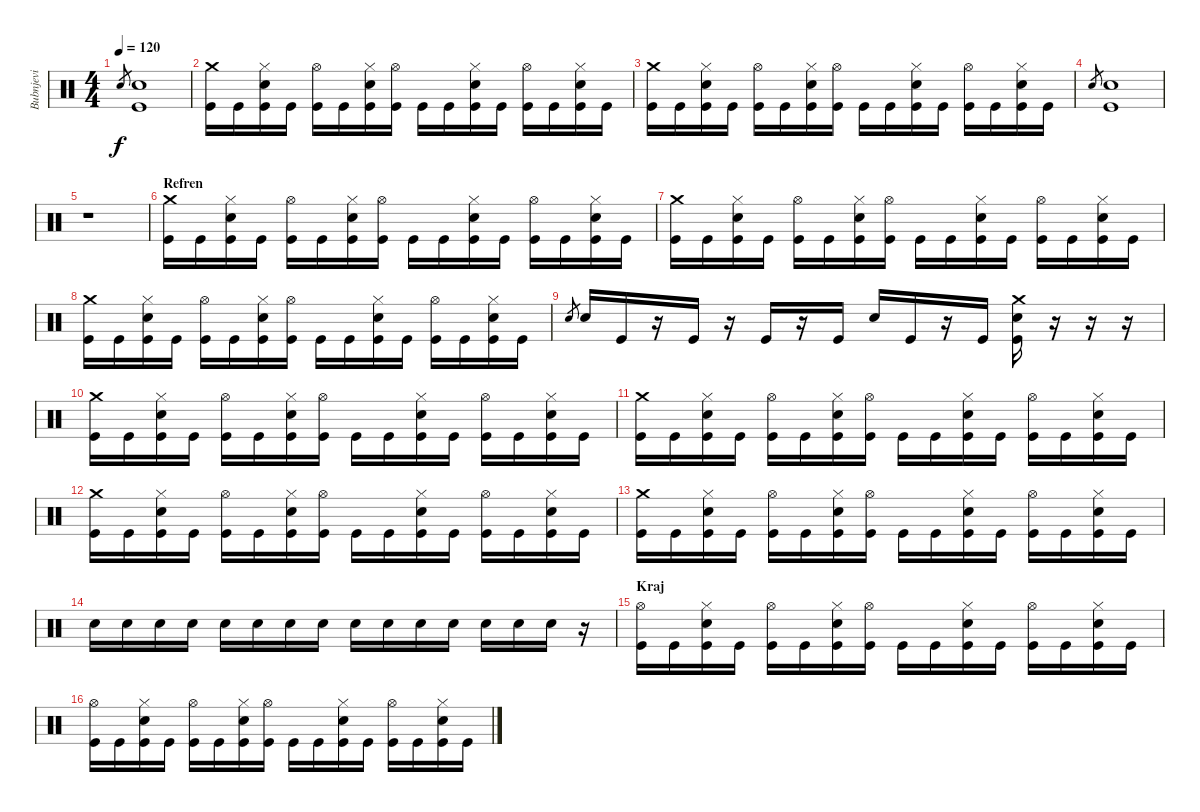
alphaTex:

\track ("Bubnjevi" "Bubnjevi") {instrument percussion}
\staff {score}
\articulation defaults
\ts (4 4)
\tempo 120
\clef neutral
\ks c "Electric Snare (hit)".8{gr dy f}
("Electric Snare (hit)" "Kick (hit)").1 |
("Crash medium (hit)" "Kick (hit)").16 "Kick (hit)".16 ("Electric Snare (hit)" "Hi-Hat (closed)" "Kick (hit)").16 "Kick (hit)".16 ("Hi-Hat (open)" "Kick (hit)").16 "Kick (hit)".16 ("Electric Snare (hit)" "Hi-Hat (closed)" "Kick (hit)").16 ("Hi-Hat (open)" "Kick (hit)").16 "Kick (hit)".16 "Kick (hit)".16 ("Electric Snare (hit)" "Hi-Hat (closed)" "Kick (hit)").16 "Kick (hit)".16 ("Hi-Hat (open)" "Kick (hit)").16 "Kick (hit)".16 ("Electric Snare (hit)" "Hi-Hat (closed)" "Kick (hit)").16 "Kick (hit)".16 |
("Crash medium (hit)" "Kick (hit)").16 "Kick (hit)".16 ("Electric Snare (hit)" "Hi-Hat (closed)" "Kick (hit)").16 "Kick (hit)".16 ("Hi-Hat (open)" "Kick (hit)").16 "Kick (hit)".16 ("Electric Snare (hit)" "Hi-Hat (closed)" "Kick (hit)").16 ("Hi-Hat (open)" "Kick (hit)").16 "Kick (hit)".16 "Kick (hit)".16 ("Electric Snare (hit)" "Hi-Hat (closed)" "Kick (hit)").16 "Kick (hit)".16 ("Hi-Hat (open)" "Kick (hit)").16 "Kick (hit)".16 ("Electric Snare (hit)" "Hi-Hat (closed)" "Kick (hit)").16 "Kick (hit)".16 |
"Electric Snare (hit)".8{gr} ("Electric Snare (hit)" "Kick (hit)").1 |
r.1 |
\section ("" "Refren")
("Crash medium (hit)" "Kick (hit)").16 "Kick (hit)".16 ("Electric Snare (hit)" "Hi-Hat (closed)" "Kick (hit)").16 "Kick (hit)".16 ("Hi-Hat (open)" "Kick (hit)").16 "Kick (hit)".16 ("Electric Snare (hit)" "Hi-Hat (closed)" "Kick (hit)").16 ("Hi-Hat (open)" "Kick (hit)").16 "Kick (hit)".16 "Kick (hit)".16 ("Electric Snare (hit)" "Hi-Hat (closed)" "Kick (hit)").16 "Kick (hit)".16 ("Hi-Hat (open)" "Kick (hit)").16 "Kick (hit)".16 ("Electric Snare (hit)" "Hi-Hat (closed)" "Kick (hit)").16 "Kick (hit)".16 |
("Crash medium (hit)" "Kick (hit)").16 "Kick (hit)".16 ("Electric Snare (hit)" "Hi-Hat (closed)" "Kick (hit)").16 "Kick (hit)".16 ("Hi-Hat (open)" "Kick (hit)").16 "Kick (hit)".16 ("Electric Snare (hit)" "Hi-Hat (closed)" "Kick (hit)").16 ("Hi-Hat (open)" "Kick (hit)").16 "Kick (hit)".16 "Kick (hit)".16 ("Electric Snare (hit)" "Hi-Hat (closed)" "Kick (hit)").16 "Kick (hit)".16 ("Hi-Hat (open)" "Kick (hit)").16 "Kick (hit)".16 ("Electric Snare (hit)" "Hi-Hat (closed)" "Kick (hit)").16 "Kick (hit)".16 |
("Crash medium (hit)" "Kick (hit)").16 "Kick (hit)".16 ("Electric Snare (hit)" "Hi-Hat (closed)" "Kick (hit)").16 "Kick (hit)".16 ("Hi-Hat (open)" "Kick (hit)").16 "Kick (hit)".16 ("Electric Snare (hit)" "Hi-Hat (closed)" "Kick (hit)").16 ("Hi-Hat (open)" "Kick (hit)").16 "Kick (hit)".16 "Kick (hit)".16 ("Electric Snare (hit)" "Hi-Hat (closed)" "Kick (hit)").16 "Kick (hit)".16 ("Hi-Hat (open)" "Kick (hit)").16 "Kick (hit)".16 ("Electric Snare (hit)" "Hi-Hat (closed)" "Kick (hit)").16 "Kick (hit)".16 |
"Electric Snare (hit)".8{gr} "Electric Snare (hit)".16 "Kick (hit)".16 r.16 "Kick (hit)".16 r.16 "Kick (hit)".16 r.16 "Kick (hit)".16 "Electric Snare (hit)".16 "Kick (hit)".16 r.16 "Kick (hit)".16 ("Crash medium (hit)" "Electric Snare (hit)" "Kick (hit)").16 r.16 r.16 r.16 |
("Crash medium (hit)" "Kick (hit)").16 "Kick (hit)".16 ("Electric Snare (hit)" "Hi-Hat (closed)" "Kick (hit)").16 "Kick (hit)".16 ("Hi-Hat (open)" "Kick (hit)").16 "Kick (hit)".16 ("Electric Snare (hit)" "Hi-Hat (closed)" "Kick (hit)").16 ("Hi-Hat (open)" "Kick (hit)").16 "Kick (hit)".16 "Kick (hit)".16 ("Electric Snare (hit)" "Hi-Hat (closed)" "Kick (hit)").16 "Kick (hit)".16 ("Hi-Hat (open)" "Kick (hit)").16 "Kick (hit)".16 ("Electric Snare (hit)" "Hi-Hat (closed)" "Kick (hit)").16 "Kick (hit)".16 |
("Crash medium (hit)" "Kick (hit)").16 "Kick (hit)".16 ("Electric Snare (hit)" "Hi-Hat (closed)" "Kick (hit)").16 "Kick (hit)".16 ("Hi-Hat (open)" "Kick (hit)").16 "Kick (hit)".16 ("Electric Snare (hit)" "Hi-Hat (closed)" "Kick (hit)").16 ("Hi-Hat (open)" "Kick (hit)").16 "Kick (hit)".16 "Kick (hit)".16 ("Electric Snare (hit)" "Hi-Hat (closed)" "Kick (hit)").16 "Kick (hit)".16 ("Hi-Hat (open)" "Kick (hit)").16 "Kick (hit)".16 ("Electric Snare (hit)" "Hi-Hat (closed)" "Kick (hit)").16 "Kick (hit)".16 |
("Crash medium (hit)" "Kick (hit)").16 "Kick (hit)".16 ("Electric Snare (hit)" "Hi-Hat (closed)" "Kick (hit)").16 "Kick (hit)".16 ("Hi-Hat (open)" "Kick (hit)").16 "Kick (hit)".16 ("Electric Snare (hit)" "Hi-Hat (closed)" "Kick (hit)").16 ("Hi-Hat (open)" "Kick (hit)").16 "Kick (hit)".16 "Kick (hit)".16 ("Electric Snare (hit)" "Hi-Hat (closed)" "Kick (hit)").16 "Kick (hit)".16 ("Hi-Hat (open)" "Kick (hit)").16 "Kick (hit)".16 ("Electric Snare (hit)" "Hi-Hat (closed)" "Kick (hit)").16 "Kick (hit)".16 |
("Crash medium (hit)" "Kick (hit)").16 "Kick (hit)".16 ("Electric Snare (hit)" "Hi-Hat (closed)" "Kick (hit)").16 "Kick (hit)".16 ("Hi-Hat (open)" "Kick (hit)").16 "Kick (hit)".16 ("Electric Snare (hit)" "Hi-Hat (closed)" "Kick (hit)").16 ("Hi-Hat (open)" "Kick (hit)").16 "Kick (hit)".16 "Kick (hit)".16 ("Electric Snare (hit)" "Hi-Hat (closed)" "Kick (hit)").16 "Kick (hit)".16 ("Hi-Hat (open)" "Kick (hit)").16 "Kick (hit)".16 ("Electric Snare (hit)" "Hi-Hat (closed)" "Kick (hit)").16 "Kick (hit)".16 |
"Electric Snare (hit)".16 "Electric Snare (hit)".16 "Electric Snare (hit)".16 "Electric Snare (hit)".16 "Electric Snare (hit)".16 "Electric Snare (hit)".16 "Electric Snare (hit)".16 "Electric Snare (hit)".16 "Electric Snare (hit)".16 "Electric Snare (hit)".16 "Electric Snare (hit)".16 "Electric Snare (hit)".16 "Electric Snare (hit)".16 "Electric Snare (hit)".16 "Electric Snare (hit)".16 r.16 |
\section ("" "Kraj")
("Hi-Hat (open)" "Kick (hit)").16 "Kick (hit)".16 ("Electric Snare (hit)" "Hi-Hat (closed)" "Kick (hit)").16 "Kick (hit)".16 ("Hi-Hat (open)" "Kick (hit)").16 "Kick (hit)".16 ("Electric Snare (hit)" "Hi-Hat (closed)" "Kick (hit)").16 ("Hi-Hat (open)" "Kick (hit)").16 "Kick (hit)".16 "Kick (hit)".16 ("Electric Snare (hit)" "Hi-Hat (closed)" "Kick (hit)").16 "Kick (hit)".16 ("Hi-Hat (open)" "Kick (hit)").16 "Kick (hit)".16 ("Electric Snare (hit)" "Hi-Hat (closed)" "Kick (hit)").16 "Kick (hit)".16 |
("Hi-Hat (open)" "Kick (hit)").16 "Kick (hit)".16 ("Electric Snare (hit)" "Hi-Hat (closed)" "Kick (hit)").16 "Kick (hit)".16 ("Hi-Hat (open)" "Kick (hit)").16 "Kick (hit)".16 ("Electric Snare (hit)" "Hi-Hat (closed)" "Kick (hit)").16 ("Hi-Hat (open)" "Kick (hit)").16 "Kick (hit)".16 "Kick (hit)".16 ("Electric Snare (hit)" "Hi-Hat (closed)" "Kick (hit)").16 "Kick (hit)".16 ("Hi-Hat (open)" "Kick (hit)").16 "Kick (hit)".16 ("Electric Snare (hit)" "Hi-Hat (closed)" "Kick (hit)").16 "Kick (hit)".16
